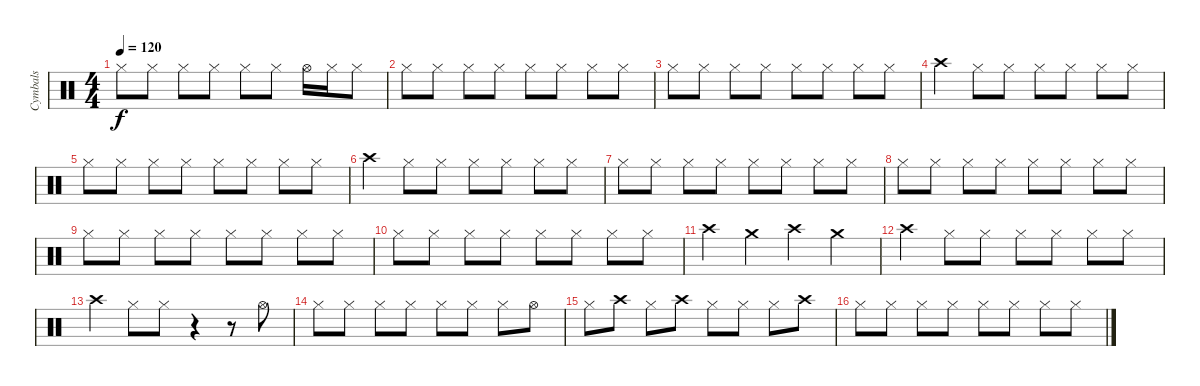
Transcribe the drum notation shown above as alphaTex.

\track ("Cymbals" "Cymbals") {instrument percussion}
\staff {score}
\articulation defaults
\ts (4 4)
\tempo 120
\clef neutral
\ks c "Hi-Hat (closed)".8{dy f} "Hi-Hat (closed)".8 "Hi-Hat (closed)".8 "Hi-Hat (closed)".8 "Hi-Hat (closed)".8 "Hi-Hat (closed)".8 "Hi-Hat (open)".16 "Hi-Hat (closed)".16 "Hi-Hat (closed)".8
|
"Hi-Hat (closed)".8 "Hi-Hat (closed)".8 "Hi-Hat (closed)".8 "Hi-Hat (closed)".8 "Hi-Hat (closed)".8 "Hi-Hat (closed)".8 "Hi-Hat (closed)".8 "Hi-Hat (closed)".8 |
"Hi-Hat (closed)".8 "Hi-Hat (closed)".8 "Hi-Hat (closed)".8 "Hi-Hat (closed)".8 "Hi-Hat (closed)".8 "Hi-Hat (closed)".8 "Hi-Hat (closed)".8 "Hi-Hat (closed)".8 |
"Crash high (hit)".4 "Hi-Hat (closed)".8 "Hi-Hat (closed)".8 "Hi-Hat (closed)".8 "Hi-Hat (closed)".8 "Hi-Hat (closed)".8 "Hi-Hat (closed)".8 |
"Hi-Hat (closed)".8 "Hi-Hat (closed)".8 "Hi-Hat (closed)".8 "Hi-Hat (closed)".8 "Hi-Hat (closed)".8 "Hi-Hat (closed)".8 "Hi-Hat (closed)".8 "Hi-Hat (closed)".8 |
"Crash high (hit)".4 "Hi-Hat (closed)".8 "Hi-Hat (closed)".8 "Hi-Hat (closed)".8 "Hi-Hat (closed)".8 "Hi-Hat (closed)".8 "Hi-Hat (closed)".8 |
"Hi-Hat (closed)".8 "Hi-Hat (closed)".8 "Hi-Hat (closed)".8 "Hi-Hat (closed)".8 "Hi-Hat (closed)".8 "Hi-Hat (closed)".8 "Hi-Hat (closed)".8 "Hi-Hat (closed)".8 |
"Hi-Hat (closed)".8 "Hi-Hat (closed)".8 "Hi-Hat (closed)".8 "Hi-Hat (closed)".8 "Hi-Hat (closed)".8 "Hi-Hat (closed)".8 "Hi-Hat (closed)".8 "Hi-Hat (closed)".8 |
"Hi-Hat (closed)".8 "Hi-Hat (closed)".8 "Hi-Hat (closed)".8 "Hi-Hat (closed)".8 "Hi-Hat (closed)".8 "Hi-Hat (closed)".8 "Hi-Hat (closed)".8 "Hi-Hat (closed)".8 |
"Hi-Hat (closed)".8 "Hi-Hat (closed)".8 "Hi-Hat (closed)".8 "Hi-Hat (closed)".8 "Hi-Hat (closed)".8 "Hi-Hat (closed)".8 "Hi-Hat (closed)".8 "Hi-Hat (closed)".8 |
"Crash high (hit)".4 "Crash medium (hit)".4 "Crash high (hit)".4 "Crash medium (hit)".4 |
"Crash high (hit)".4 "Hi-Hat (closed)".8 "Hi-Hat (closed)".8 "Hi-Hat (closed)".8 "Hi-Hat (closed)".8 "Hi-Hat (closed)".8 "Hi-Hat (closed)".8 |
"Crash high (hit)".4 "Hi-Hat (closed)".8 "Hi-Hat (closed)".8 r.4 r.8 "Hi-Hat (open)".8 |
"Hi-Hat (closed)".8 "Hi-Hat (closed)".8 "Hi-Hat (closed)".8 "Hi-Hat (closed)".8 "Hi-Hat (closed)".8 "Hi-Hat (closed)".8 "Hi-Hat (closed)".8 "Hi-Hat (open)".8 |
"Hi-Hat (closed)".8 "Crash high (hit)".8 "Hi-Hat (closed)".8 "Crash high (hit)".8 "Hi-Hat (closed)".8 "Hi-Hat (closed)".8 "Hi-Hat (closed)".8 "Crash high (hit)".8 |
"Hi-Hat (closed)".8 "Hi-Hat (closed)".8 "Hi-Hat (closed)".8 "Hi-Hat (closed)".8 "Hi-Hat (closed)".8 "Hi-Hat (closed)".8 "Hi-Hat (closed)".8 "Hi-Hat (closed)".8
